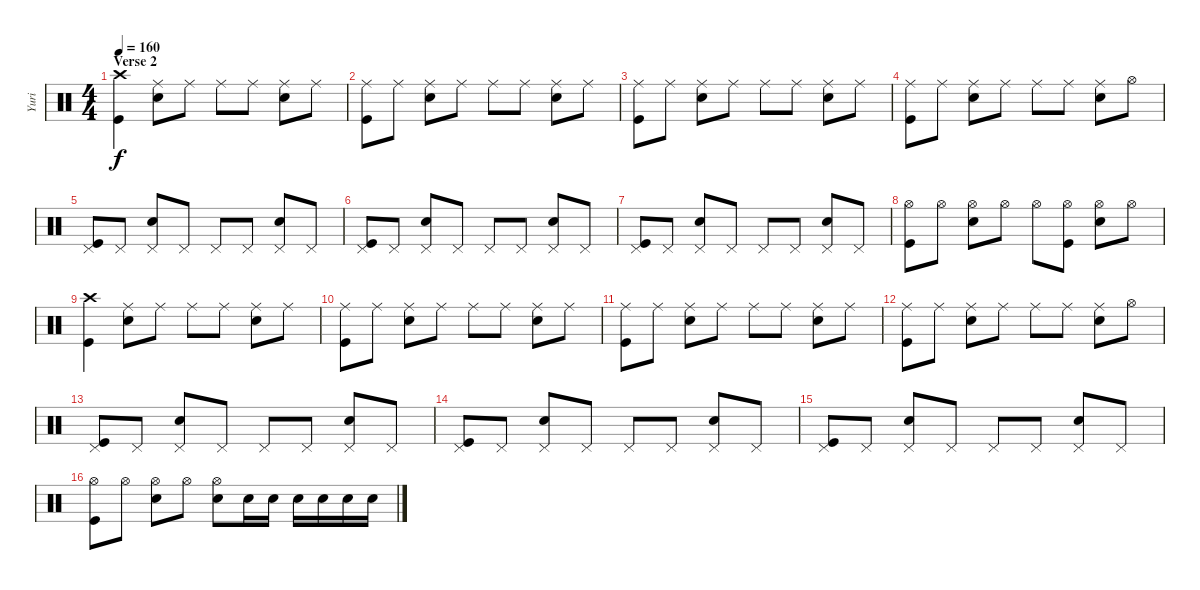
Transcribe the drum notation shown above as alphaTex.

\track ("Yuri" "Yuri") {instrument percussion}
\staff {score}
\articulation defaults
\ts (4 4)
\section ("" "Verse 2")
\tempo 160
\clef neutral
\ks c
("Crash high (hit)" "Kick (hit)").4{dy f} ("Ride (middle)" "Snare (hit) 2").8 "Ride (middle)".8 "Ride (middle)".8 "Ride (middle)".8 ("Ride (middle)" "Snare (hit) 2").8 "Ride (middle)".8 |
("Ride (middle)" "Kick (hit)").8 "Ride (middle)".8 ("Ride (middle)" "Snare (hit) 2").8 "Ride (middle)".8 "Ride (middle)".8 "Ride (middle)".8 ("Ride (middle)" "Snare (hit) 2").8 "Ride (middle)".8 |
("Ride (middle)" "Kick (hit)").8 "Ride (middle)".8 ("Ride (middle)" "Snare (hit) 2").8 "Ride (middle)".8 "Ride (middle)".8 "Ride (middle)".8 ("Ride (middle)" "Snare (hit) 2").8 "Ride (middle)".8 |
("Ride (middle)" "Kick (hit)").8 "Ride (middle)".8 ("Ride (middle)" "Snare (hit) 2").8 "Ride (middle)".8 "Ride (middle)".8 "Ride (middle)".8 ("Ride (middle)" "Snare (hit) 2").8 "Hi-Hat (open)".8 |
("Pedal Hi-Hat (hit)" "Kick (hit)").8 "Pedal Hi-Hat (hit)".8 ("Pedal Hi-Hat (hit)" "Snare (hit) 2").8 "Pedal Hi-Hat (hit)".8 "Pedal Hi-Hat (hit)".8 "Pedal Hi-Hat (hit)".8 ("Pedal Hi-Hat (hit)" "Snare (hit) 2").8 "Pedal Hi-Hat (hit)".8 |
("Pedal Hi-Hat (hit)" "Kick (hit)").8 "Pedal Hi-Hat (hit)".8 ("Pedal Hi-Hat (hit)" "Snare (hit) 2").8 "Pedal Hi-Hat (hit)".8 "Pedal Hi-Hat (hit)".8 "Pedal Hi-Hat (hit)".8 ("Pedal Hi-Hat (hit)" "Snare (hit) 2").8 "Pedal Hi-Hat (hit)".8 |
("Pedal Hi-Hat (hit)" "Kick (hit)").8 "Pedal Hi-Hat (hit)".8 ("Pedal Hi-Hat (hit)" "Snare (hit) 2").8 "Pedal Hi-Hat (hit)".8 "Pedal Hi-Hat (hit)".8 "Pedal Hi-Hat (hit)".8 ("Pedal Hi-Hat (hit)" "Snare (hit) 2").8 "Pedal Hi-Hat (hit)".8 |
("Hi-Hat (open)" "Kick (hit)").8 "Hi-Hat (open)".8 ("Hi-Hat (open)" "Snare (hit) 2").8 "Hi-Hat (open)".8 "Hi-Hat (open)".8 ("Hi-Hat (open)" "Kick (hit)").8 ("Hi-Hat (open)" "Snare (hit) 2").8 "Hi-Hat (open)".8 |
("Crash high (hit)" "Kick (hit)").4 ("Ride (middle)" "Snare (hit) 2").8 "Ride (middle)".8 "Ride (middle)".8 "Ride (middle)".8 ("Ride (middle)" "Snare (hit) 2").8 "Ride (middle)".8 |
("Ride (middle)" "Kick (hit)").8 "Ride (middle)".8 ("Ride (middle)" "Snare (hit) 2").8 "Ride (middle)".8 "Ride (middle)".8 "Ride (middle)".8 ("Ride (middle)" "Snare (hit) 2").8 "Ride (middle)".8 |
("Ride (middle)" "Kick (hit)").8 "Ride (middle)".8 ("Ride (middle)" "Snare (hit) 2").8 "Ride (middle)".8 "Ride (middle)".8 "Ride (middle)".8 ("Ride (middle)" "Snare (hit) 2").8 "Ride (middle)".8 |
("Ride (middle)" "Kick (hit)").8 "Ride (middle)".8 ("Ride (middle)" "Snare (hit) 2").8 "Ride (middle)".8 "Ride (middle)".8 "Ride (middle)".8 ("Ride (middle)" "Snare (hit) 2").8 "Hi-Hat (open)".8 |
("Pedal Hi-Hat (hit)" "Kick (hit)").8 "Pedal Hi-Hat (hit)".8 ("Pedal Hi-Hat (hit)" "Snare (hit) 2").8 "Pedal Hi-Hat (hit)".8 "Pedal Hi-Hat (hit)".8 "Pedal Hi-Hat (hit)".8 ("Pedal Hi-Hat (hit)" "Snare (hit) 2").8 "Pedal Hi-Hat (hit)".8 |
("Pedal Hi-Hat (hit)" "Kick (hit)").8 "Pedal Hi-Hat (hit)".8 ("Pedal Hi-Hat (hit)" "Snare (hit) 2").8 "Pedal Hi-Hat (hit)".8 "Pedal Hi-Hat (hit)".8 "Pedal Hi-Hat (hit)".8 ("Pedal Hi-Hat (hit)" "Snare (hit) 2").8 "Pedal Hi-Hat (hit)".8 |
("Pedal Hi-Hat (hit)" "Kick (hit)").8 "Pedal Hi-Hat (hit)".8 ("Pedal Hi-Hat (hit)" "Snare (hit) 2").8 "Pedal Hi-Hat (hit)".8 "Pedal Hi-Hat (hit)".8 "Pedal Hi-Hat (hit)".8 ("Pedal Hi-Hat (hit)" "Snare (hit) 2").8 "Pedal Hi-Hat (hit)".8 |
("Hi-Hat (open)" "Kick (hit)").8 "Hi-Hat (open)".8 ("Hi-Hat (open)" "Snare (hit) 2").8 "Hi-Hat (open)".8 ("Hi-Hat (open)" "Snare (hit) 2").8 "Snare (hit) 2".16 "Snare (hit) 2".16 "Snare (hit) 2".16 "Snare (hit) 2".16 "Snare (hit) 2".16 "Snare (hit) 2".16
